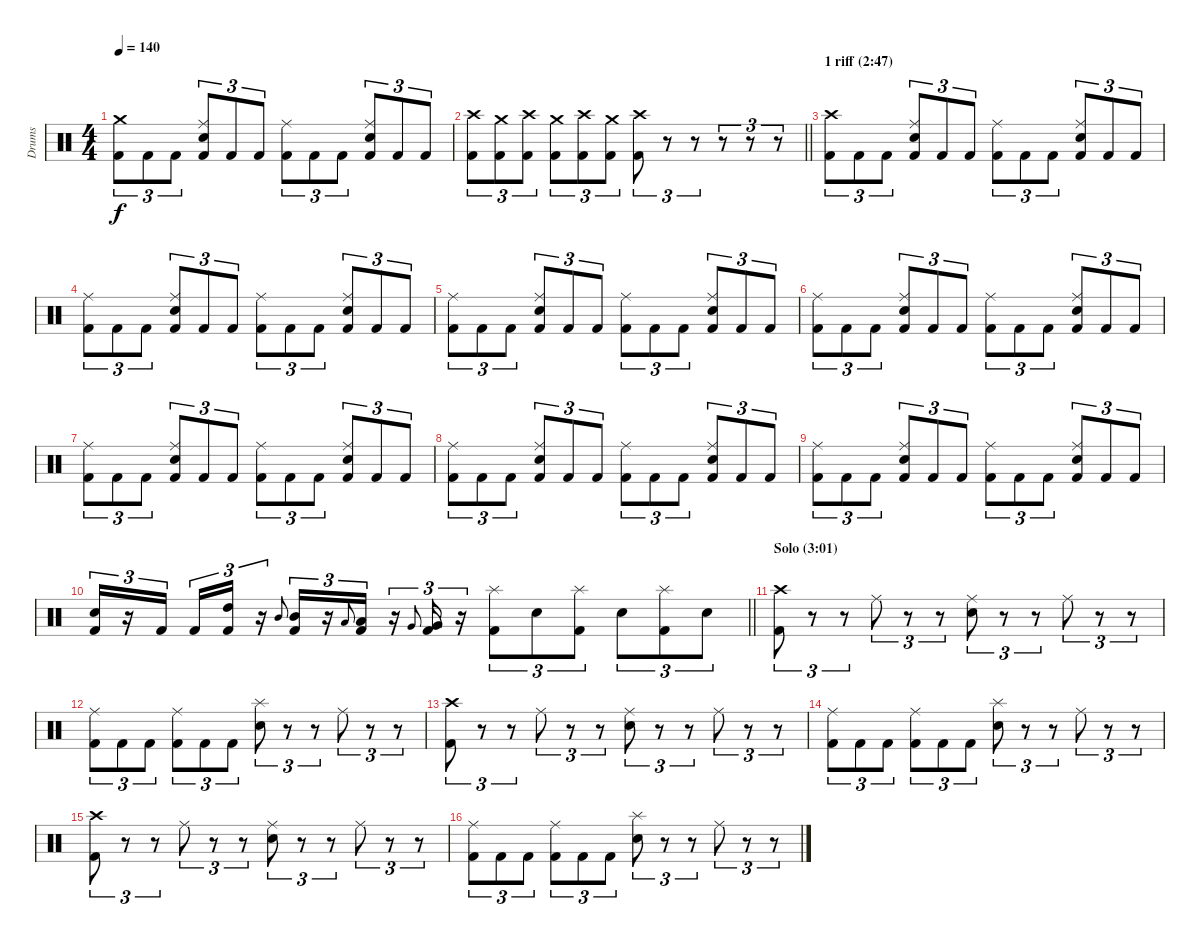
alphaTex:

\track ("Drums" "Drums") {instrument percussion}
\staff {score}
\articulation defaults
\ts (4 4)
\tempo 140
\clef neutral
\ks c
("Crash medium (hit)" "Kick (hit) 2").8{tu (3 2) dy f} "Kick (hit) 2".8{tu (3 2)} "Kick (hit) 2".8{tu (3 2)} ("Ride (middle)" "Snare (hit) 2" "Kick (hit) 2").8{tu (3 2)} "Kick (hit) 2".8{tu (3 2)} "Kick (hit) 2".8{tu (3 2)} ("Ride (middle)" "Kick (hit) 2").8{tu (3 2)} "Kick (hit) 2".8{tu (3 2)} "Kick (hit) 2".8{tu (3 2)} ("Ride (middle)" "Snare (hit) 2" "Kick (hit) 2").8{tu (3 2)} "Kick (hit) 2".8{tu (3 2)} "Kick (hit) 2".8{tu (3 2)} |
\barLineRight lightlight
("Crash high (hit)" "Kick (hit) 2").8{tu (3 2)} ("Crash medium (hit)" "Kick (hit) 2").8{tu (3 2)} ("Crash high (hit)" "Kick (hit) 2").8{tu (3 2)} ("Crash medium (hit)" "Kick (hit) 2").8{tu (3 2)} ("Crash high (hit)" "Kick (hit) 2").8{tu (3 2)} ("Crash medium (hit)" "Kick (hit) 2").8{tu (3 2)} ("Crash high (hit)" "Kick (hit) 2").8{tu (3 2)} r.8{tu (3 2)} r.8{tu (3 2)} r.8{tu (3 2)} r.8{tu (3 2)} r.8{tu (3 2)} |
\section ("" "1 riff (2:47)")
("Crash high (hit)" "Kick (hit) 2").8{tu (3 2)} "Kick (hit) 2".8{tu (3 2)} "Kick (hit) 2".8{tu (3 2)} ("Ride (middle)" "Snare (hit) 2" "Kick (hit) 2").8{tu (3 2)} "Kick (hit) 2".8{tu (3 2)} "Kick (hit) 2".8{tu (3 2)} ("Ride (middle)" "Kick (hit) 2").8{tu (3 2)} "Kick (hit) 2".8{tu (3 2)} "Kick (hit) 2".8{tu (3 2)} ("Ride (middle)" "Snare (hit) 2" "Kick (hit) 2").8{tu (3 2)} "Kick (hit) 2".8{tu (3 2)} "Kick (hit) 2".8{tu (3 2)} |
("Ride (middle)" "Kick (hit) 2").8{tu (3 2)} "Kick (hit) 2".8{tu (3 2)} "Kick (hit) 2".8{tu (3 2)} ("Ride (middle)" "Snare (hit) 2" "Kick (hit) 2").8{tu (3 2)} "Kick (hit) 2".8{tu (3 2)} "Kick (hit) 2".8{tu (3 2)} ("Ride (middle)" "Kick (hit) 2").8{tu (3 2)} "Kick (hit) 2".8{tu (3 2)} "Kick (hit) 2".8{tu (3 2)} ("Ride (middle)" "Snare (hit) 2" "Kick (hit) 2").8{tu (3 2)} "Kick (hit) 2".8{tu (3 2)} "Kick (hit) 2".8{tu (3 2)} |
("Ride (middle)" "Kick (hit) 2").8{tu (3 2)} "Kick (hit) 2".8{tu (3 2)} "Kick (hit) 2".8{tu (3 2)} ("Ride (middle)" "Snare (hit) 2" "Kick (hit) 2").8{tu (3 2)} "Kick (hit) 2".8{tu (3 2)} "Kick (hit) 2".8{tu (3 2)} ("Ride (middle)" "Kick (hit) 2").8{tu (3 2)} "Kick (hit) 2".8{tu (3 2)} "Kick (hit) 2".8{tu (3 2)} ("Ride (middle)" "Snare (hit) 2" "Kick (hit) 2").8{tu (3 2)} "Kick (hit) 2".8{tu (3 2)} "Kick (hit) 2".8{tu (3 2)} |
("Ride (middle)" "Kick (hit) 2").8{tu (3 2)} "Kick (hit) 2".8{tu (3 2)} "Kick (hit) 2".8{tu (3 2)} ("Ride (middle)" "Snare (hit) 2" "Kick (hit) 2").8{tu (3 2)} "Kick (hit) 2".8{tu (3 2)} "Kick (hit) 2".8{tu (3 2)} ("Ride (middle)" "Kick (hit) 2").8{tu (3 2)} "Kick (hit) 2".8{tu (3 2)} "Kick (hit) 2".8{tu (3 2)} ("Ride (middle)" "Snare (hit) 2" "Kick (hit) 2").8{tu (3 2)} "Kick (hit) 2".8{tu (3 2)} "Kick (hit) 2".8{tu (3 2)} |
("Ride (middle)" "Kick (hit) 2").8{tu (3 2)} "Kick (hit) 2".8{tu (3 2)} "Kick (hit) 2".8{tu (3 2)} ("Ride (middle)" "Snare (hit) 2" "Kick (hit) 2").8{tu (3 2)} "Kick (hit) 2".8{tu (3 2)} "Kick (hit) 2".8{tu (3 2)} ("Ride (middle)" "Kick (hit) 2").8{tu (3 2)} "Kick (hit) 2".8{tu (3 2)} "Kick (hit) 2".8{tu (3 2)} ("Ride (middle)" "Snare (hit) 2" "Kick (hit) 2").8{tu (3 2)} "Kick (hit) 2".8{tu (3 2)} "Kick (hit) 2".8{tu (3 2)} |
("Ride (middle)" "Kick (hit) 2").8{tu (3 2)} "Kick (hit) 2".8{tu (3 2)} "Kick (hit) 2".8{tu (3 2)} ("Ride (middle)" "Snare (hit) 2" "Kick (hit) 2").8{tu (3 2)} "Kick (hit) 2".8{tu (3 2)} "Kick (hit) 2".8{tu (3 2)} ("Ride (middle)" "Kick (hit) 2").8{tu (3 2)} "Kick (hit) 2".8{tu (3 2)} "Kick (hit) 2".8{tu (3 2)} ("Ride (middle)" "Snare (hit) 2" "Kick (hit) 2").8{tu (3 2)} "Kick (hit) 2".8{tu (3 2)} "Kick (hit) 2".8{tu (3 2)} |
("Ride (middle)" "Kick (hit) 2").8{tu (3 2)} "Kick (hit) 2".8{tu (3 2)} "Kick (hit) 2".8{tu (3 2)} ("Ride (middle)" "Snare (hit) 2" "Kick (hit) 2").8{tu (3 2)} "Kick (hit) 2".8{tu (3 2)} "Kick (hit) 2".8{tu (3 2)} ("Ride (middle)" "Kick (hit) 2").8{tu (3 2)} "Kick (hit) 2".8{tu (3 2)} "Kick (hit) 2".8{tu (3 2)} ("Ride (middle)" "Snare (hit) 2" "Kick (hit) 2").8{tu (3 2)} "Kick (hit) 2".8{tu (3 2)} "Kick (hit) 2".8{tu (3 2)} |
\barLineRight lightlight
("Snare (hit) 2" "Kick (hit) 2").16{tu (3 2)} r.16{tu (3 2)} "Kick (hit) 2".16{tu (3 2) beam splitsecondary} "Kick (hit) 2".16{tu (3 2)} ("High Tom (hit)" "Kick (hit) 2").16{tu (3 2)} r.16{tu (3 2)} "Mid Tom (hit)".8{gr onbeat} ("Mid Tom (hit)" "Kick (hit) 2").16{tu (3 2)} r.16{tu (3 2)} "Low Tom (hit)".8{gr onbeat} ("Low Tom (hit)" "Kick (hit) 2").16{tu (3 2)} r.16{tu (3 2)} "Very Low Tom (hit)".8{gr onbeat} ("Very Low Tom (hit)" "Kick (hit) 2").16{tu (3 2)} r.16{tu (3 2)} ("Splash (hit)" "Kick (hit) 2").8{tu (3 2)} "Snare (hit) 2".8{tu (3 2)} ("Splash (hit)" "Kick (hit) 2").8{tu (3 2)} "Snare (hit) 2".8{tu (3 2)} ("Splash (hit)" "Kick (hit) 2").8{tu (3 2)} "Snare (hit) 2".8{tu (3 2)} |
\section ("" "Solo (3:01)")
("Crash high (hit)" "Kick (hit) 2").8{tu (3 2)} r.8{tu (3 2)} r.8{tu (3 2)} "Ride (middle)".8{tu (3 2)} r.8{tu (3 2)} r.8{tu (3 2)} ("Ride (middle)" "Snare (hit) 2").8{tu (3 2)} r.8{tu (3 2)} r.8{tu (3 2)} "Ride (middle)".8{tu (3 2)} r.8{tu (3 2)} r.8{tu (3 2)} |
("Ride (middle)" "Kick (hit) 2").8{tu (3 2)} "Kick (hit) 2".8{tu (3 2)} "Kick (hit) 2".8{tu (3 2)} ("Ride (middle)" "Kick (hit) 2").8{tu (3 2)} "Kick (hit) 2".8{tu (3 2)} "Kick (hit) 2".8{tu (3 2)} ("Splash (hit)" "Snare (hit) 2").8{tu (3 2)} r.8{tu (3 2)} r.8{tu (3 2)} "Ride (middle)".8{tu (3 2)} r.8{tu (3 2)} r.8{tu (3 2)} |
("Crash high (hit)" "Kick (hit) 2").8{tu (3 2)} r.8{tu (3 2)} r.8{tu (3 2)} "Ride (middle)".8{tu (3 2)} r.8{tu (3 2)} r.8{tu (3 2)} ("Ride (middle)" "Snare (hit) 2").8{tu (3 2)} r.8{tu (3 2)} r.8{tu (3 2)} "Ride (middle)".8{tu (3 2)} r.8{tu (3 2)} r.8{tu (3 2)} |
("Ride (middle)" "Kick (hit) 2").8{tu (3 2)} "Kick (hit) 2".8{tu (3 2)} "Kick (hit) 2".8{tu (3 2)} ("Ride (middle)" "Kick (hit) 2").8{tu (3 2)} "Kick (hit) 2".8{tu (3 2)} "Kick (hit) 2".8{tu (3 2)} ("Splash (hit)" "Snare (hit) 2").8{tu (3 2)} r.8{tu (3 2)} r.8{tu (3 2)} "Ride (middle)".8{tu (3 2)} r.8{tu (3 2)} r.8{tu (3 2)} |
("Crash high (hit)" "Kick (hit) 2").8{tu (3 2)} r.8{tu (3 2)} r.8{tu (3 2)} "Ride (middle)".8{tu (3 2)} r.8{tu (3 2)} r.8{tu (3 2)} ("Ride (middle)" "Snare (hit) 2").8{tu (3 2)} r.8{tu (3 2)} r.8{tu (3 2)} "Ride (middle)".8{tu (3 2)} r.8{tu (3 2)} r.8{tu (3 2)} |
("Ride (middle)" "Kick (hit) 2").8{tu (3 2)} "Kick (hit) 2".8{tu (3 2)} "Kick (hit) 2".8{tu (3 2)} ("Ride (middle)" "Kick (hit) 2").8{tu (3 2)} "Kick (hit) 2".8{tu (3 2)} "Kick (hit) 2".8{tu (3 2)} ("Splash (hit)" "Snare (hit) 2").8{tu (3 2)} r.8{tu (3 2)} r.8{tu (3 2)} "Ride (middle)".8{tu (3 2)} r.8{tu (3 2)} r.8{tu (3 2)}
